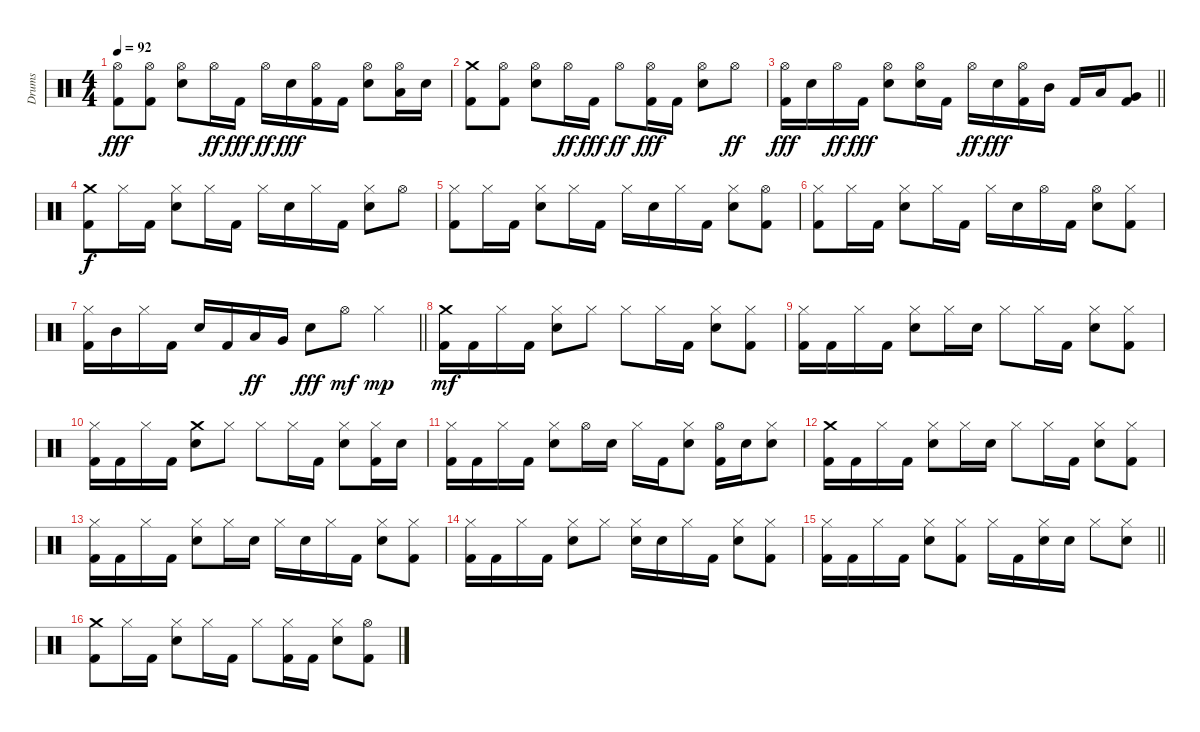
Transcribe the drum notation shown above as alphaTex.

\track ("Drums" "Drums") {instrument percussion}
\staff {score}
\articulation defaults
\ts (4 4)
\tempo 92
\clef neutral
\ks c
("Hi-Hat (open)" "Kick (hit) 2").8{dy fff} ("Hi-Hat (open)" "Kick (hit) 2").8 ("Hi-Hat (open)" "Snare (hit) 2").8 "Hi-Hat (open)".16{dy ff} "Kick (hit) 2".16{dy fff} "Hi-Hat (open)".16{dy ff} "Snare (hit) 2".16{dy fff} ("Hi-Hat (open)" "Kick (hit) 2").16 "Kick (hit) 2".16 ("Hi-Hat (open)" "Snare (hit) 2").8 ("Hi-Hat (open)" "Low Tom (hit)").16 "Snare (hit) 2".16 |
("Crash medium (hit)" "Kick (hit) 2").8 ("Hi-Hat (open)" "Kick (hit) 2").8 ("Hi-Hat (open)" "Snare (hit) 2").8 "Hi-Hat (open)".16{dy ff} "Kick (hit) 2".16{dy fff} "Hi-Hat (open)".8{dy ff} ("Hi-Hat (open)" "Kick (hit) 2").16{dy fff} "Kick (hit) 2".16 ("Hi-Hat (open)" "Snare (hit) 2").8 "Hi-Hat (open)".8{dy ff} |
\barLineRight lightlight
("Hi-Hat (open)" "Kick (hit) 2").16{dy fff} "Snare (hit) 2".16 "Hi-Hat (open)".16{dy ff} "Kick (hit) 2".16{dy fff} ("Hi-Hat (open)" "Snare (hit) 2").8 ("Hi-Hat (open)" "Snare (hit) 2").16 "Kick (hit) 2".16 "Hi-Hat (open)".16{dy ff} "Snare (hit) 2".16{dy fff} ("Hi-Hat (open)" "Kick (hit) 2").16 "Mid Tom (hit)".16 "Kick (hit) 2".16 "Low Tom (hit)".16 ("Very Low Tom (hit)" "Kick (hit) 2").8 |
\section ("" "")
("Crash medium (hit)" "Kick (hit) 2").8{dy f} "Hi-Hat (closed)".16 "Kick (hit) 2".16 ("Hi-Hat (closed)" "Snare (hit) 2").8 "Hi-Hat (closed)".16 "Kick (hit) 2".16 "Hi-Hat (closed)".16 "Snare (hit) 2".16 "Hi-Hat (closed)".16 "Kick (hit) 2".16 ("Hi-Hat (closed)" "Snare (hit) 2").8 "Hi-Hat (open)".8 |
("Hi-Hat (closed)" "Kick (hit) 2").8 "Hi-Hat (closed)".16 "Kick (hit) 2".16 ("Hi-Hat (closed)" "Snare (hit) 2").8 "Hi-Hat (closed)".16 "Kick (hit) 2".16 "Hi-Hat (closed)".16 "Snare (hit) 2".16 "Hi-Hat (closed)".16 "Kick (hit) 2".16 ("Hi-Hat (closed)" "Snare (hit) 2").8 ("Hi-Hat (open)" "Kick (hit) 2").8 |
("Hi-Hat (closed)" "Kick (hit) 2").8 "Hi-Hat (closed)".16 "Kick (hit) 2".16 ("Hi-Hat (closed)" "Snare (hit) 2").8 "Hi-Hat (closed)".16 "Kick (hit) 2".16 "Hi-Hat (closed)".16 "Snare (hit) 2".16 "Hi-Hat (open)".16 "Kick (hit) 2".16 ("Hi-Hat (open)" "Snare (hit) 2").8 ("Hi-Hat (closed)" "Kick (hit) 2").8 |
\barLineRight lightlight
("Hi-Hat (closed)" "Kick (hit) 2").16 "Mid Tom (hit)".16 "Hi-Hat (closed)".16 "Kick (hit) 2".16 "Snare (hit) 2".16 "Kick (hit) 2".16 "Low Tom (hit)".16{dy ff} "Very Low Tom (hit)".16 "Snare (hit) 2".8{dy fff} "Hi-Hat (open)".8{dy mf} "Hi-Hat (closed)".4{dy mp} |
\section ("" "")
("Crash medium (hit)" "Kick (hit) 2").16{dy mf} "Kick (hit) 2".16 "Hi-Hat (closed)".16 "Kick (hit) 2".16 ("Hi-Hat (closed)" "Snare (hit) 2").8 "Hi-Hat (closed)".8 "Hi-Hat (closed)".8 "Hi-Hat (closed)".16 "Kick (hit) 2".16 ("Hi-Hat (closed)" "Snare (hit) 2").8 ("Hi-Hat (closed)" "Kick (hit) 2").8 |
("Hi-Hat (closed)" "Kick (hit) 2").16 "Kick (hit) 2".16 "Hi-Hat (closed)".16 "Kick (hit) 2".16 ("Hi-Hat (closed)" "Snare (hit) 2").8 "Hi-Hat (closed)".16 "Snare (hit) 2".16 "Hi-Hat (closed)".8 "Hi-Hat (closed)".16 "Kick (hit) 2".16 ("Hi-Hat (closed)" "Snare (hit) 2").8 ("Hi-Hat (closed)" "Kick (hit) 2").8 |
("Hi-Hat (closed)" "Kick (hit) 2").16 "Kick (hit) 2".16 "Hi-Hat (closed)".16 "Kick (hit) 2".16 ("Crash medium (hit)" "Snare (hit) 2").8 "Hi-Hat (closed)".8 "Hi-Hat (closed)".8 "Hi-Hat (closed)".16 "Kick (hit) 2".16 ("Hi-Hat (closed)" "Snare (hit) 2").8 ("Hi-Hat (closed)" "Kick (hit) 2").16 "Snare (hit) 2".16 |
("Hi-Hat (closed)" "Kick (hit) 2").16 "Kick (hit) 2".16 "Hi-Hat (closed)".16 "Kick (hit) 2".16 ("Hi-Hat (closed)" "Snare (hit) 2").8 "Hi-Hat (open)".16 "Snare (hit) 2".16 "Hi-Hat (closed)".16 "Kick (hit) 2".16 ("Hi-Hat (closed)" "Snare (hit) 2").8 ("Hi-Hat (open)" "Kick (hit) 2").16 "Snare (hit) 2".16 ("Hi-Hat (closed)" "Snare (hit) 2").8 |
("Crash medium (hit)" "Kick (hit) 2").16 "Kick (hit) 2".16 "Hi-Hat (closed)".16 "Kick (hit) 2".16 ("Hi-Hat (closed)" "Snare (hit) 2").8 "Hi-Hat (closed)".16 "Snare (hit) 2".16 "Hi-Hat (closed)".8 "Hi-Hat (closed)".16 "Kick (hit) 2".16 ("Hi-Hat (closed)" "Snare (hit) 2").8 ("Hi-Hat (closed)" "Kick (hit) 2").8 |
("Hi-Hat (closed)" "Kick (hit) 2").16 "Kick (hit) 2".16 "Hi-Hat (closed)".16 "Kick (hit) 2".16 ("Hi-Hat (closed)" "Snare (hit) 2").8 "Hi-Hat (closed)".16 "Snare (hit) 2".16 "Hi-Hat (closed)".16 "Snare (hit) 2".16 "Hi-Hat (closed)".16 "Kick (hit) 2".16 ("Hi-Hat (closed)" "Snare (hit) 2").8 ("Hi-Hat (closed)" "Kick (hit) 2").8 |
("Hi-Hat (closed)" "Kick (hit) 2").16 "Kick (hit) 2".16 "Hi-Hat (closed)".16 "Kick (hit) 2".16 ("Hi-Hat (closed)" "Snare (hit) 2").8 "Hi-Hat (closed)".8 ("Hi-Hat (closed)" "Snare (hit) 2").16 "Snare (hit) 2".16 "Hi-Hat (closed)".16 "Kick (hit) 2".16 ("Hi-Hat (closed)" "Snare (hit) 2").8 ("Hi-Hat (closed)" "Kick (hit) 2").8 |
\barLineRight lightlight
("Hi-Hat (closed)" "Kick (hit) 2").16 "Kick (hit) 2".16 "Hi-Hat (closed)".16 "Kick (hit) 2".16 ("Hi-Hat (closed)" "Snare (hit) 2").8 ("Hi-Hat (closed)" "Kick (hit) 2").8 "Hi-Hat (closed)".16 "Kick (hit) 2".16 ("Hi-Hat (closed)" "Snare (hit) 2").16 "Snare (hit) 2".16 "Hi-Hat (closed)".8 ("Hi-Hat (closed)" "Snare (hit) 2").8 |
\section ("" "")
("Crash medium (hit)" "Kick (hit) 2").8 "Hi-Hat (closed)".16 "Kick (hit) 2".16 ("Hi-Hat (closed)" "Snare (hit) 2").8 "Hi-Hat (closed)".16 "Kick (hit) 2".16 "Hi-Hat (closed)".8 ("Hi-Hat (closed)" "Kick (hit) 2").16 "Kick (hit) 2".16 ("Hi-Hat (closed)" "Snare (hit) 2").8 ("Hi-Hat (open)" "Kick (hit) 2").8
